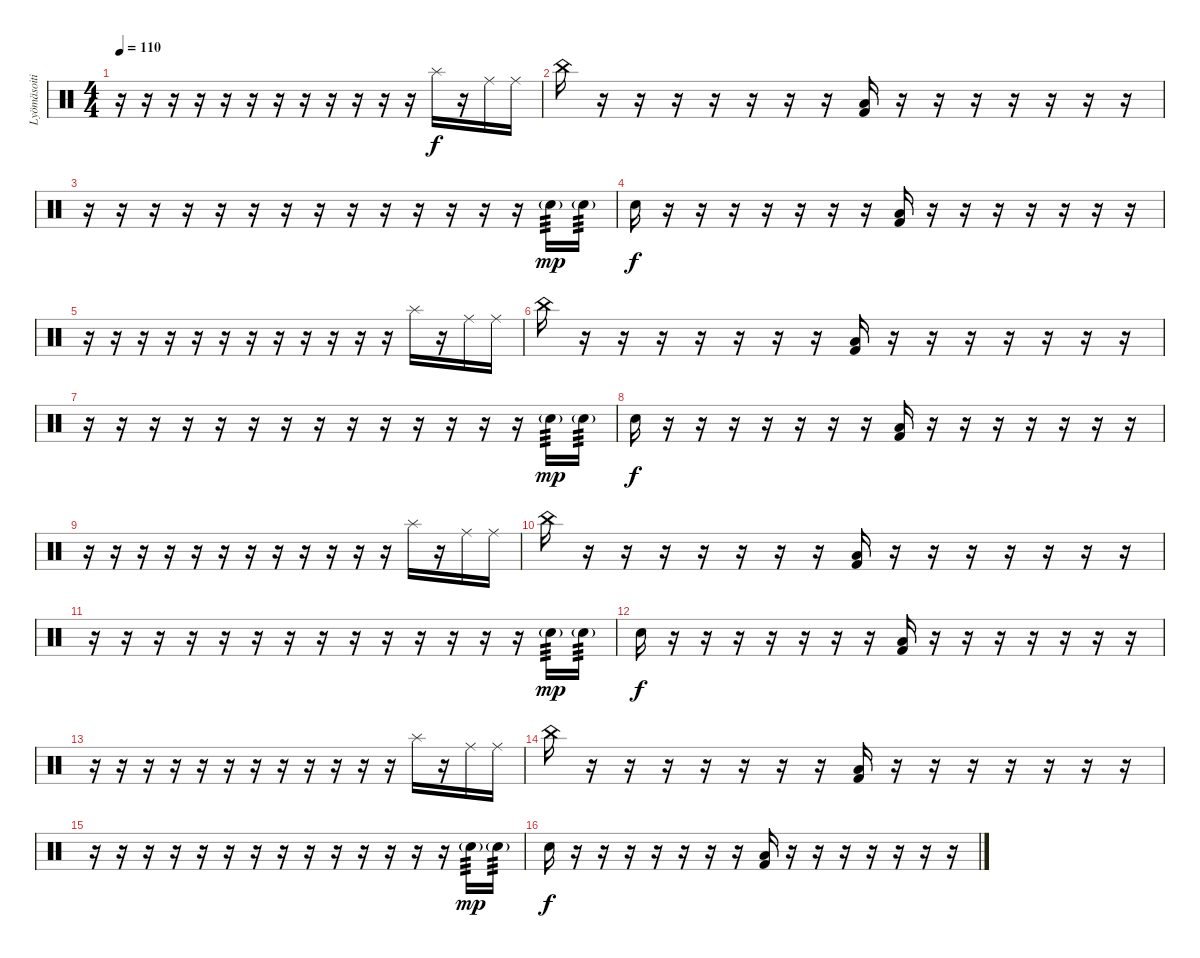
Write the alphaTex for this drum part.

\track ("Lyömäsoitin" "Lyömäsoiti") {instrument percussion}
\staff {score}
\articulation defaults
\ts (4 4)
\tempo 110
\clef neutral
\ks c
r.16{dy f} r.16 r.16 r.16 r.16 r.16 r.16 r.16 r.16 r.16 r.16 r.16 "Splash (hit)".16 r.16 "Ride (middle)".16 "Ride (middle)".16 |
"China (hit)".16 r.16 r.16 r.16 r.16 r.16 r.16 r.16 ("Low Tom (hit)" "Kick (hit) 2").16 r.16 r.16 r.16 r.16 r.16 r.16 r.16 |
r.16 r.16 r.16 r.16 r.16 r.16 r.16 r.16 r.16 r.16 r.16 r.16 r.16 r.16 "Snare (hit) 2"{g}.16{tp 3 dy mp} "Snare (hit) 2"{g}.16{tp 3} |
"Snare (hit) 2".16{dy f} r.16 r.16 r.16 r.16 r.16 r.16 r.16 ("Low Tom (hit)" "Kick (hit) 2").16 r.16 r.16 r.16 r.16 r.16 r.16 r.16 |
r.16 r.16 r.16 r.16 r.16 r.16 r.16 r.16 r.16 r.16 r.16 r.16 "Splash (hit)".16 r.16 "Ride (middle)".16 "Ride (middle)".16 |
"China (hit)".16 r.16 r.16 r.16 r.16 r.16 r.16 r.16 ("Low Tom (hit)" "Kick (hit) 2").16 r.16 r.16 r.16 r.16 r.16 r.16 r.16 |
r.16 r.16 r.16 r.16 r.16 r.16 r.16 r.16 r.16 r.16 r.16 r.16 r.16 r.16 "Snare (hit) 2"{g}.16{tp 3 dy mp} "Snare (hit) 2"{g}.16{tp 3} |
"Snare (hit) 2".16{dy f} r.16 r.16 r.16 r.16 r.16 r.16 r.16 ("Low Tom (hit)" "Kick (hit) 2").16 r.16 r.16 r.16 r.16 r.16 r.16 r.16 |
r.16 r.16 r.16 r.16 r.16 r.16 r.16 r.16 r.16 r.16 r.16 r.16 "Splash (hit)".16 r.16 "Ride (middle)".16 "Ride (middle)".16 |
"China (hit)".16 r.16 r.16 r.16 r.16 r.16 r.16 r.16 ("Low Tom (hit)" "Kick (hit) 2").16 r.16 r.16 r.16 r.16 r.16 r.16 r.16 |
r.16 r.16 r.16 r.16 r.16 r.16 r.16 r.16 r.16 r.16 r.16 r.16 r.16 r.16 "Snare (hit) 2"{g}.16{tp 3 dy mp} "Snare (hit) 2"{g}.16{tp 3} |
"Snare (hit) 2".16{dy f} r.16 r.16 r.16 r.16 r.16 r.16 r.16 ("Low Tom (hit)" "Kick (hit) 2").16 r.16 r.16 r.16 r.16 r.16 r.16 r.16 |
r.16 r.16 r.16 r.16 r.16 r.16 r.16 r.16 r.16 r.16 r.16 r.16 "Splash (hit)".16 r.16 "Ride (middle)".16 "Ride (middle)".16 |
"China (hit)".16 r.16 r.16 r.16 r.16 r.16 r.16 r.16 ("Low Tom (hit)" "Kick (hit) 2").16 r.16 r.16 r.16 r.16 r.16 r.16 r.16 |
r.16 r.16 r.16 r.16 r.16 r.16 r.16 r.16 r.16 r.16 r.16 r.16 r.16 r.16 "Snare (hit) 2"{g}.16{tp 3 dy mp} "Snare (hit) 2"{g}.16{tp 3} |
"Snare (hit) 2".16{dy f} r.16 r.16 r.16 r.16 r.16 r.16 r.16 ("Low Tom (hit)" "Kick (hit) 2").16 r.16 r.16 r.16 r.16 r.16 r.16 r.16
